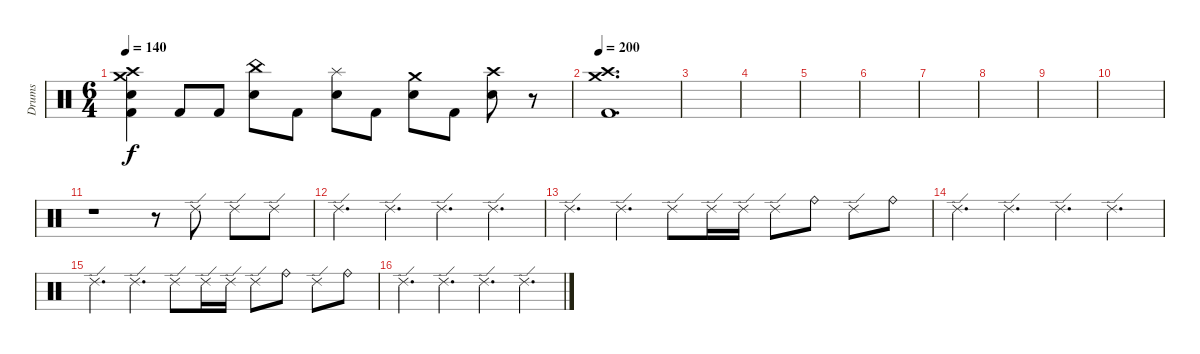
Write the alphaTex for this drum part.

\track ("Drums" "Drums") {mute instrument percussion}
\staff {score}
\articulation defaults
\ts (6 4)
\tempo 140
\clef neutral
\ks c
("Crash high (hit)" "Crash medium (hit)" "Electric Snare (hit)" "Kick (hit) 2").4{dy f} "Kick (hit) 2".8 "Kick (hit) 2".8 ("China (hit)" "Electric Snare (hit)").8 "Kick (hit) 2".8 ("Splash (hit)" "Electric Snare (hit)").8 "Kick (hit) 2".8 ("Crash medium (hit)" "Electric Snare (hit)").8 "Kick (hit) 2".8 ("Crash high (hit)" "Electric Snare (hit)").8 r.8 |
\tempo 200
("Crash high (hit)" "Crash medium (hit)" "Kick (hit) 2").1{d} |
|
|
|
|
|
|
|
|
r.1 r.8 "Ride (edge) 2".8 "Ride (edge) 2".8 "Ride (edge) 2".8 |
"Ride (edge) 2".4{d} "Ride (edge) 2".4{d} "Ride (edge) 2".4{d} "Ride (edge) 2".4{d} |
"Ride (edge) 2".4{d} "Ride (edge) 2".4{d} "Ride (edge) 2".8 "Ride (edge) 2".16 "Ride (edge) 2".16 "Ride (edge) 2".8 "Ride (bell)".8 "Ride (edge) 2".8 "Ride (bell)".8 |
"Ride (edge) 2".4{d} "Ride (edge) 2".4{d} "Ride (edge) 2".4{d} "Ride (edge) 2".4{d} |
"Ride (edge) 2".4{d} "Ride (edge) 2".4{d} "Ride (edge) 2".8 "Ride (edge) 2".16 "Ride (edge) 2".16 "Ride (edge) 2".8 "Ride (bell)".8 "Ride (edge) 2".8 "Ride (bell)".8 |
"Ride (edge) 2".4{d} "Ride (edge) 2".4{d} "Ride (edge) 2".4{d} "Ride (edge) 2".4{d}
